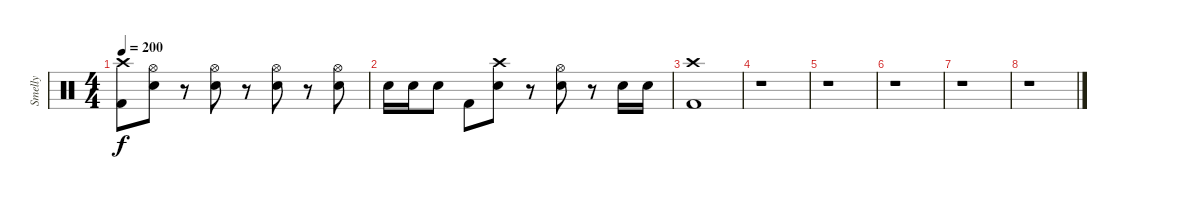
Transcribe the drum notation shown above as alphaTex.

\track ("Smelly" "Smelly") {instrument percussion}
\staff {score}
\articulation defaults
\ts (4 4)
\tempo 200
\clef neutral
\ks c
("Crash high (hit)" "Kick (hit) 2").8{dy f} ("Hi-Hat (open)" "Electric Snare (hit)").8 r.8 ("Hi-Hat (open)" "Electric Snare (hit)").8 r.8 ("Hi-Hat (open)" "Electric Snare (hit)").8 r.8 ("Hi-Hat (open)" "Electric Snare (hit)").8 |
"Electric Snare (hit)".16 "Electric Snare (hit)".16 "Electric Snare (hit)".8 "Kick (hit) 2".8 ("Crash high (hit)" "Electric Snare (hit)").8 r.8 ("Hi-Hat (open)" "Electric Snare (hit)").8 r.8 "Electric Snare (hit)".16 "Electric Snare (hit)".16 |
("Crash high (hit)" "Kick (hit) 2").1 |
r.1 |
r.1 |
r.1 |
r.1 |
r.1
